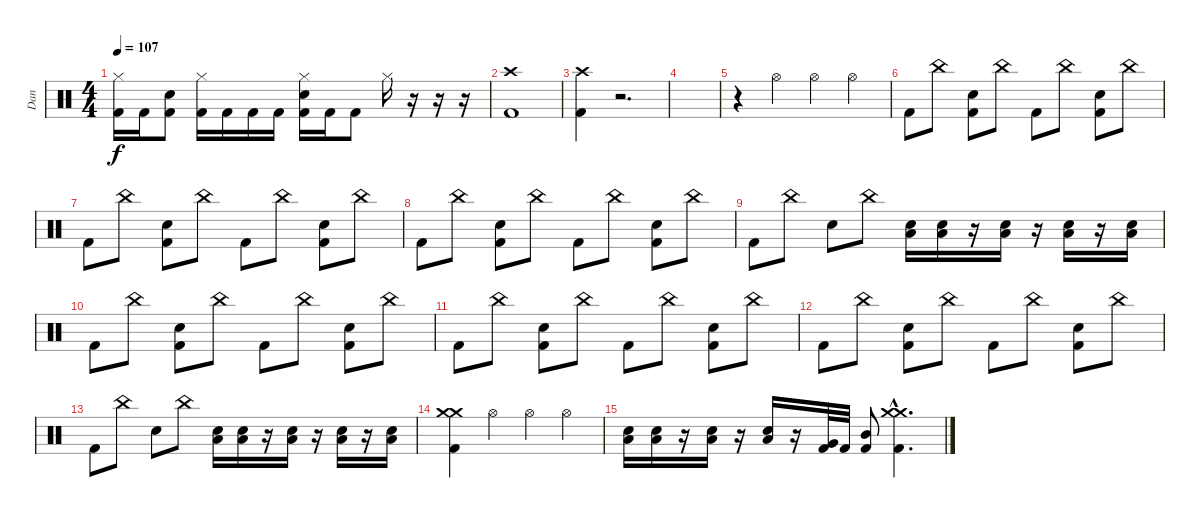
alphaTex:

\track ("Dan" "Dan") {instrument percussion}
\staff {score}
\articulation defaults
\ts (4 4)
\tempo 107
\clef neutral
\ks c
("Hi-Hat (closed)" "Kick (hit) 2").16{dy f} "Kick (hit) 2".16 ("Kick (hit) 2" "Electric Snare (hit)").8 ("Hi-Hat (closed)" "Kick (hit) 2").16 "Kick (hit) 2".16 "Kick (hit) 2".16 "Kick (hit) 2".16 ("Hi-Hat (closed)" "Kick (hit) 2" "Electric Snare (hit)").16 "Kick (hit) 2".16 "Kick (hit) 2".8 "Hi-Hat (closed)".16 r.16 r.16 r.16 |
("Crash high (hit)" "Kick (hit) 2").1 |
("Kick (hit) 2" "Crash high (hit)").4 r.2{d} |
|
r.4 "Hi-Hat (open)".4 "Hi-Hat (open)".4 "Hi-Hat (open)".4 |
"Kick (hit) 2".8 "China (hit)".8 ("Electric Snare (hit)" "Kick (hit) 2").8 "China (hit)".8 "Kick (hit) 2".8 "China (hit)".8 ("Electric Snare (hit)" "Kick (hit) 2").8 "China (hit)".8 |
"Kick (hit) 2".8 "China (hit)".8 ("Electric Snare (hit)" "Kick (hit) 2").8 "China (hit)".8 "Kick (hit) 2".8 "China (hit)".8 ("Electric Snare (hit)" "Kick (hit) 2").8 "China (hit)".8 |
"Kick (hit) 2".8 "China (hit)".8 ("Kick (hit) 2" "Electric Snare (hit)").8 "China (hit)".8 "Kick (hit) 2".8 "China (hit)".8 ("Kick (hit) 2" "Electric Snare (hit)").8 "China (hit)".8 |
"Kick (hit) 2".8 "China (hit)".8 "Electric Snare (hit)".8 "China (hit)".8 ("Low Floor Tom (hit)" "Electric Snare (hit)").16 ("Low Floor Tom (hit)" "Electric Snare (hit)").16 r.16 ("Low Floor Tom (hit)" "Electric Snare (hit)").16 r.16 ("Low Floor Tom (hit)" "Electric Snare (hit)").16 r.16 ("Low Floor Tom (hit)" "Electric Snare (hit)").16 |
"Kick (hit) 2".8 "China (hit)".8 ("Electric Snare (hit)" "Kick (hit) 2").8 "China (hit)".8 "Kick (hit) 2".8 "China (hit)".8 ("Electric Snare (hit)" "Kick (hit) 2").8 "China (hit)".8 |
"Kick (hit) 2".8 "China (hit)".8 ("Electric Snare (hit)" "Kick (hit) 2").8 "China (hit)".8 "Kick (hit) 2".8 "China (hit)".8 ("Electric Snare (hit)" "Kick (hit) 2").8 "China (hit)".8 |
"Kick (hit) 2".8 "China (hit)".8 ("Kick (hit) 2" "Electric Snare (hit)").8 "China (hit)".8 "Kick (hit) 2".8 "China (hit)".8 ("Kick (hit) 2" "Electric Snare (hit)").8 "China (hit)".8 |
"Kick (hit) 2".8 "China (hit)".8 "Electric Snare (hit)".8 "China (hit)".8 ("Low Floor Tom (hit)" "Electric Snare (hit)").16 ("Low Floor Tom (hit)" "Electric Snare (hit)").16 r.16 ("Low Floor Tom (hit)" "Electric Snare (hit)").16 r.16 ("Low Floor Tom (hit)" "Electric Snare (hit)").16 r.16 ("Low Floor Tom (hit)" "Electric Snare (hit)").16 |
("Crash medium (hit)" "Crash medium (hit)" "Kick (hit) 2").4 "Hi-Hat (open)".4 "Hi-Hat (open)".4 "Hi-Hat (open)".4 |
("Low Floor Tom (hit)" "Electric Snare (hit)").16 ("Low Floor Tom (hit)" "Electric Snare (hit)").16 r.16 ("Low Floor Tom (hit)" "Electric Snare (hit)").16 r.16 ("Low Floor Tom (hit)" "Electric Snare (hit)").16 r.16 ("Very Low Tom (hit)" "Kick (hit) 2").32 "Kick (hit) 2".32 ("Mid Tom (hit)" "Kick (hit) 2").8 ("Crash medium (hit)"{hac} "Crash medium (hit)"{hac} "Kick (hit) 2"{hac}).4{d}
